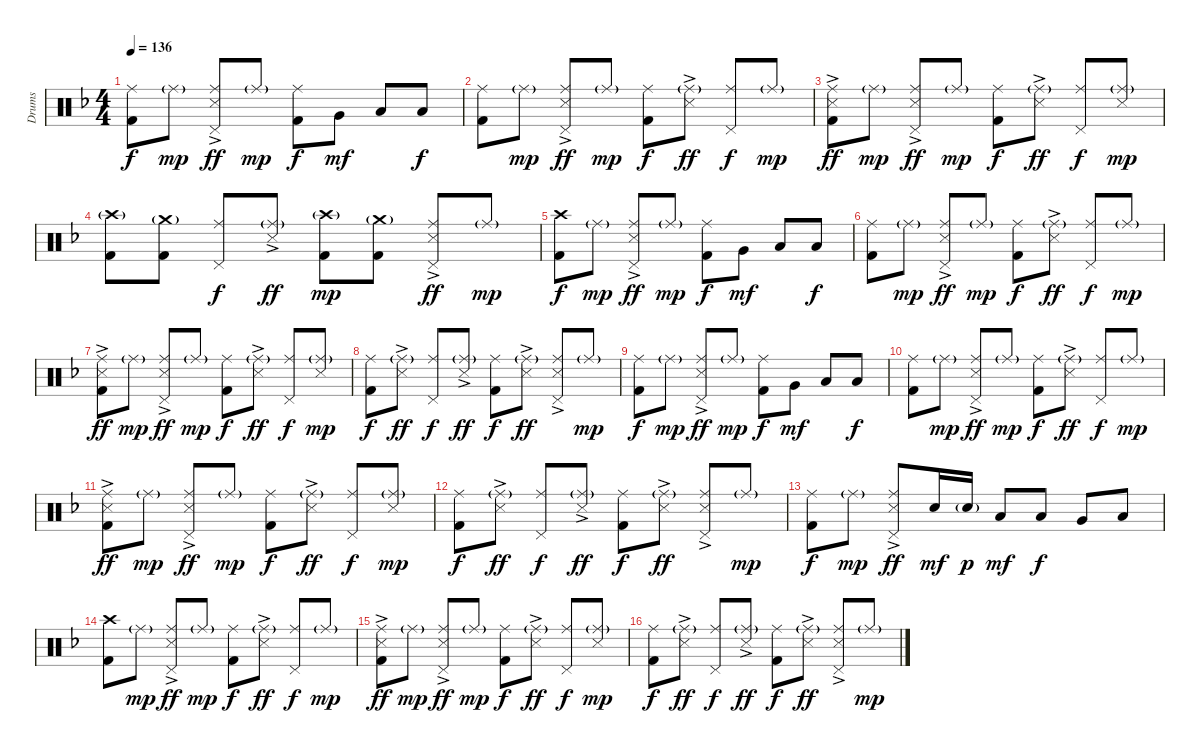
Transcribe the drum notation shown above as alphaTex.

\track ("Drums" "Drums") {instrument percussion}
\staff {score}
\articulation defaults
\ts (4 4)
\tempo 136
\clef neutral
\ks f
("Ride (middle)" "Kick (hit) 2").8{dy f} "Ride (middle)"{g}.8{dy mp} ("Ride (middle)" "Snare (side stick) 3"{ac} "Pedal Hi-Hat (hit)").8{dy ff} "Ride (middle)"{g}.8{dy mp} ("Ride (middle)" "Kick (hit) 2").8{dy f} "Very Low Tom (hit)".8{dy mf} "Low Floor Tom (hit)".8 "Low Floor Tom (hit)".8{dy f} |
("Ride (middle)" "Kick (hit) 2").8 "Ride (middle)"{g}.8{dy mp} ("Ride (middle)" "Snare (side stick) 3"{ac} "Pedal Hi-Hat (hit)").8{dy ff} "Ride (middle)"{g}.8{dy mp} ("Ride (middle)" "Kick (hit) 2").8{dy f} ("Ride (middle)"{g} "Snare (side stick) 3"{ac}).8{dy ff} ("Ride (middle)" "Pedal Hi-Hat (hit)").8{dy f} "Ride (middle)"{g}.8{dy mp} |
("Ride (middle)" "Snare (side stick) 3"{ac} "Kick (hit) 2").8{dy ff} "Ride (middle)"{g}.8{dy mp} ("Ride (middle)" "Snare (side stick) 3"{ac} "Pedal Hi-Hat (hit)").8{dy ff} "Ride (middle)"{g}.8{dy mp} ("Ride (middle)" "Kick (hit) 2").8{dy f} ("Ride (middle)"{g} "Snare (side stick) 3"{ac}).8{dy ff} ("Ride (middle)" "Pedal Hi-Hat (hit)").8{dy f} ("Ride (middle)"{g} "Snare (side stick) 3").8{dy mp} |
("Crash high (hit)"{g} "Kick (hit) 2").8 ("Crash medium (hit)"{g} "Kick (hit) 2").8 ("Ride (middle)" "Pedal Hi-Hat (hit)").8{dy f} ("Ride (middle)"{g} "Snare (side stick) 3"{ac}).8{dy ff} ("Crash high (hit)"{g} "Kick (hit) 2").8{dy mp} ("Crash medium (hit)"{g} "Kick (hit) 2").8 ("Ride (middle)" "Snare (side stick) 3"{ac} "Pedal Hi-Hat (hit)").8{dy ff} "Ride (middle)"{g}.8{dy mp} |
("Crash high (hit)" "Kick (hit) 2").8{dy f} "Ride (middle)"{g}.8{dy mp} ("Ride (middle)" "Snare (side stick) 3"{ac} "Pedal Hi-Hat (hit)").8{dy ff} "Ride (middle)"{g}.8{dy mp} ("Ride (middle)" "Kick (hit) 2").8{dy f} "Very Low Tom (hit)".8{dy mf} "Low Floor Tom (hit)".8 "Low Floor Tom (hit)".8{dy f} |
("Ride (middle)" "Kick (hit) 2").8 "Ride (middle)"{g}.8{dy mp} ("Ride (middle)" "Snare (side stick) 3"{ac} "Pedal Hi-Hat (hit)").8{dy ff} "Ride (middle)"{g}.8{dy mp} ("Ride (middle)" "Kick (hit) 2").8{dy f} ("Ride (middle)"{g} "Snare (side stick) 3"{ac}).8{dy ff} ("Ride (middle)" "Pedal Hi-Hat (hit)").8{dy f} "Ride (middle)"{g}.8{dy mp} |
("Ride (middle)" "Snare (side stick) 3"{ac} "Kick (hit) 2").8{dy ff} "Ride (middle)"{g}.8{dy mp} ("Ride (middle)" "Snare (side stick) 3"{ac} "Pedal Hi-Hat (hit)").8{dy ff} "Ride (middle)"{g}.8{dy mp} ("Ride (middle)" "Kick (hit) 2").8{dy f} ("Ride (middle)"{g} "Snare (side stick) 3"{ac}).8{dy ff} ("Ride (middle)" "Pedal Hi-Hat (hit)").8{dy f} ("Ride (middle)"{g} "Snare (side stick) 3").8{dy mp} |
("Ride (middle)" "Kick (hit) 2").8{dy f} ("Ride (middle)"{g} "Snare (side stick) 3"{ac}).8{dy ff} ("Ride (middle)" "Pedal Hi-Hat (hit)").8{dy f} ("Ride (middle)"{g} "Snare (side stick) 3"{ac}).8{dy ff} ("Ride (middle)" "Kick (hit) 2").8{dy f} ("Ride (middle)"{g} "Snare (side stick) 3"{ac}).8{dy ff} ("Ride (middle)" "Snare (side stick) 3"{ac} "Pedal Hi-Hat (hit)").8 "Ride (middle)"{g}.8{dy mp} |
("Ride (middle)" "Kick (hit) 2").8{dy f} "Ride (middle)"{g}.8{dy mp} ("Ride (middle)" "Snare (side stick) 3"{ac} "Pedal Hi-Hat (hit)").8{dy ff} "Ride (middle)"{g}.8{dy mp} ("Ride (middle)" "Kick (hit) 2").8{dy f} "Very Low Tom (hit)".8{dy mf} "Low Floor Tom (hit)".8 "Low Floor Tom (hit)".8{dy f} |
("Ride (middle)" "Kick (hit) 2").8 "Ride (middle)"{g}.8{dy mp} ("Ride (middle)" "Snare (side stick) 3"{ac} "Pedal Hi-Hat (hit)").8{dy ff} "Ride (middle)"{g}.8{dy mp} ("Ride (middle)" "Kick (hit) 2").8{dy f} ("Ride (middle)"{g} "Snare (side stick) 3"{ac}).8{dy ff} ("Ride (middle)" "Pedal Hi-Hat (hit)").8{dy f} "Ride (middle)"{g}.8{dy mp} |
("Ride (middle)" "Snare (side stick) 3"{ac} "Kick (hit) 2").8{dy ff} "Ride (middle)"{g}.8{dy mp} ("Ride (middle)" "Snare (side stick) 3"{ac} "Pedal Hi-Hat (hit)").8{dy ff} "Ride (middle)"{g}.8{dy mp} ("Ride (middle)" "Kick (hit) 2").8{dy f} ("Ride (middle)"{g} "Snare (side stick) 3"{ac}).8{dy ff} ("Ride (middle)" "Pedal Hi-Hat (hit)").8{dy f} ("Ride (middle)"{g} "Snare (side stick) 3").8{dy mp} |
("Ride (middle)" "Kick (hit) 2").8{dy f} ("Ride (middle)"{g} "Snare (side stick) 3"{ac}).8{dy ff} ("Ride (middle)" "Pedal Hi-Hat (hit)").8{dy f} ("Ride (middle)"{g} "Snare (side stick) 3"{ac}).8{dy ff} ("Ride (middle)" "Kick (hit) 2").8{dy f} ("Ride (middle)"{g} "Snare (side stick) 3"{ac}).8{dy ff} ("Ride (middle)" "Snare (side stick) 3"{ac} "Pedal Hi-Hat (hit)").8 "Ride (middle)"{g}.8{dy mp} |
("Ride (middle)" "Kick (hit) 2").8{dy f} "Ride (middle)"{g}.8{dy mp} ("Ride (middle)" "Snare (side stick) 3"{ac} "Pedal Hi-Hat (hit)").8{dy ff} "Snare (hit) 2".16{dy mf} "Snare (hit) 2"{g}.16{dy p} "Low Tom (hit)".8{dy mf} "Low Tom (hit)".8{dy f} "Very Low Tom (hit)".8 "Low Floor Tom (hit)".8 |
("Crash high (hit)" "Kick (hit) 2").8 "Ride (middle)"{g}.8{dy mp} ("Ride (middle)" "Snare (side stick) 3"{ac} "Pedal Hi-Hat (hit)").8{dy ff} "Ride (middle)"{g}.8{dy mp} ("Ride (middle)" "Kick (hit) 2").8{dy f} ("Ride (middle)"{g} "Snare (side stick) 3"{ac}).8{dy ff} ("Ride (middle)" "Pedal Hi-Hat (hit)").8{dy f} "Ride (middle)"{g}.8{dy mp} |
("Ride (middle)" "Snare (side stick) 3"{ac} "Kick (hit) 2").8{dy ff} "Ride (middle)"{g}.8{dy mp} ("Ride (middle)" "Snare (side stick) 3"{ac} "Pedal Hi-Hat (hit)").8{dy ff} "Ride (middle)"{g}.8{dy mp} ("Ride (middle)" "Kick (hit) 2").8{dy f} ("Ride (middle)"{g} "Snare (side stick) 3"{ac}).8{dy ff} ("Ride (middle)" "Pedal Hi-Hat (hit)").8{dy f} ("Ride (middle)"{g} "Snare (side stick) 3").8{dy mp} |
("Ride (middle)" "Kick (hit) 2").8{dy f} ("Ride (middle)"{g} "Snare (side stick) 3"{ac}).8{dy ff} ("Ride (middle)" "Pedal Hi-Hat (hit)").8{dy f} ("Ride (middle)"{g} "Snare (side stick) 3"{ac}).8{dy ff} ("Ride (middle)" "Kick (hit) 2").8{dy f} ("Ride (middle)"{g} "Snare (side stick) 3"{ac}).8{dy ff} ("Ride (middle)" "Snare (side stick) 3"{ac} "Pedal Hi-Hat (hit)").8 "Ride (middle)"{g}.8{dy mp}
